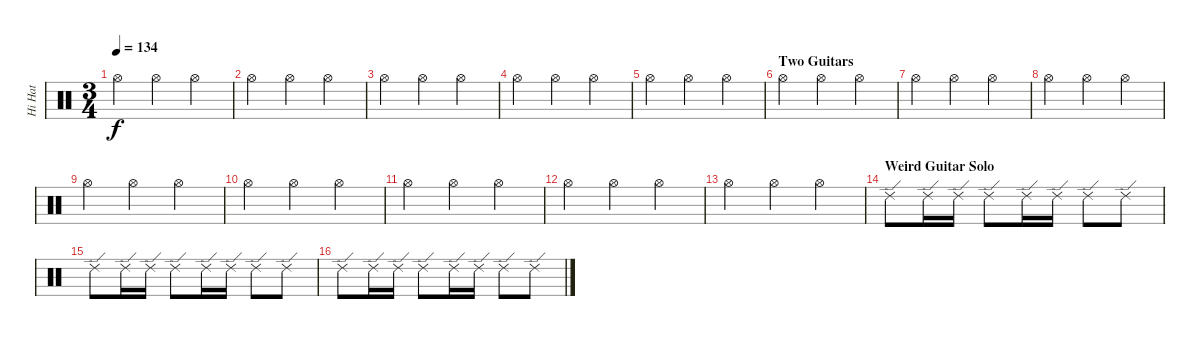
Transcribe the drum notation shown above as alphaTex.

\track ("Hi Hat" "Hi Hat") {instrument percussion}
\staff {score}
\articulation defaults
\ts (3 4)
\tempo 134
\clef neutral
\ks c "Hi-Hat (open)".4{dy f} "Hi-Hat (open)".4 "Hi-Hat (open)".4
|
"Hi-Hat (open)".4 "Hi-Hat (open)".4 "Hi-Hat (open)".4 |
"Hi-Hat (open)".4 "Hi-Hat (open)".4 "Hi-Hat (open)".4 |
"Hi-Hat (open)".4 "Hi-Hat (open)".4 "Hi-Hat (open)".4 |
"Hi-Hat (open)".4 "Hi-Hat (open)".4 "Hi-Hat (open)".4 |
\section ("" "Two Guitars")
"Hi-Hat (open)".4 "Hi-Hat (open)".4 "Hi-Hat (open)".4 |
"Hi-Hat (open)".4 "Hi-Hat (open)".4 "Hi-Hat (open)".4 |
"Hi-Hat (open)".4 "Hi-Hat (open)".4 "Hi-Hat (open)".4 |
"Hi-Hat (open)".4 "Hi-Hat (open)".4 "Hi-Hat (open)".4 |
"Hi-Hat (open)".4 "Hi-Hat (open)".4 "Hi-Hat (open)".4 |
"Hi-Hat (open)".4 "Hi-Hat (open)".4 "Hi-Hat (open)".4 |
"Hi-Hat (open)".4 "Hi-Hat (open)".4 "Hi-Hat (open)".4 |
"Hi-Hat (open)".4 "Hi-Hat (open)".4 "Hi-Hat (open)".4 |
\section ("" "Weird Guitar Solo")
"Ride (edge) 2".8 "Ride (edge) 2".16 "Ride (edge) 2".16 "Ride (edge) 2".8 "Ride (edge) 2".16 "Ride (edge) 2".16 "Ride (edge) 2".8 "Ride (edge) 2".8 |
"Ride (edge) 2".8 "Ride (edge) 2".16 "Ride (edge) 2".16 "Ride (edge) 2".8 "Ride (edge) 2".16 "Ride (edge) 2".16 "Ride (edge) 2".8 "Ride (edge) 2".8 |
"Ride (edge) 2".8 "Ride (edge) 2".16 "Ride (edge) 2".16 "Ride (edge) 2".8 "Ride (edge) 2".16 "Ride (edge) 2".16 "Ride (edge) 2".8 "Ride (edge) 2".8
